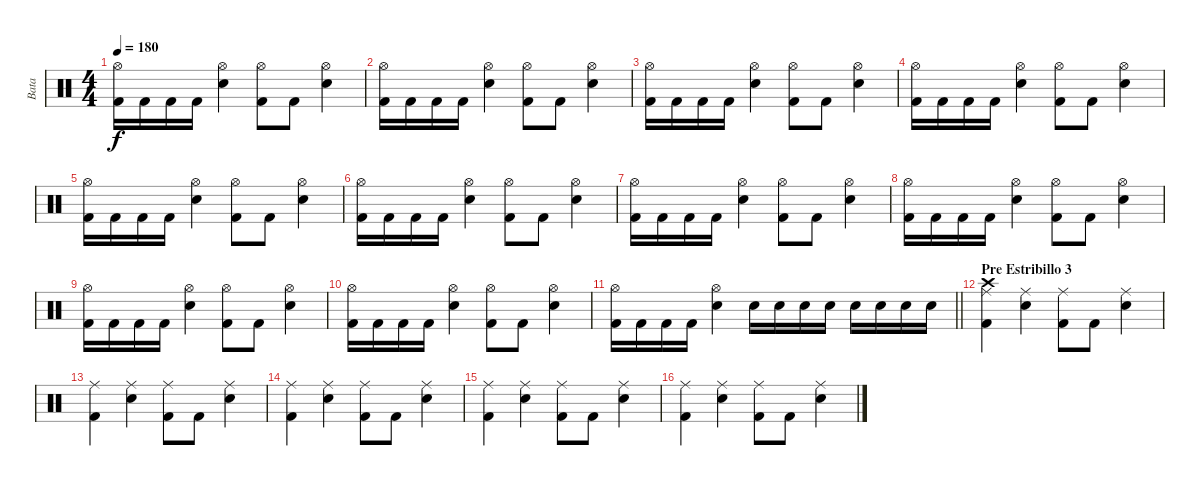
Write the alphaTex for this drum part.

\track ("Bata" "Bata") {instrument percussion}
\staff {score}
\articulation defaults
\ts (4 4)
\tempo 180
\clef neutral
\ks c
("Hi-Hat (open)" "Kick (hit) 2").16{dy f} "Kick (hit) 2".16 "Kick (hit) 2".16 "Kick (hit) 2".16 ("Hi-Hat (open)" "Snare (hit) 2").4 ("Hi-Hat (open)" "Kick (hit) 2").8 "Kick (hit) 2".8 ("Hi-Hat (open)" "Snare (hit) 2").4 |
("Hi-Hat (open)" "Kick (hit) 2").16 "Kick (hit) 2".16 "Kick (hit) 2".16 "Kick (hit) 2".16 ("Hi-Hat (open)" "Snare (hit) 2").4 ("Hi-Hat (open)" "Kick (hit) 2").8 "Kick (hit) 2".8 ("Hi-Hat (open)" "Snare (hit) 2").4 |
("Hi-Hat (open)" "Kick (hit) 2").16 "Kick (hit) 2".16 "Kick (hit) 2".16 "Kick (hit) 2".16 ("Hi-Hat (open)" "Snare (hit) 2").4 ("Hi-Hat (open)" "Kick (hit) 2").8 "Kick (hit) 2".8 ("Hi-Hat (open)" "Snare (hit) 2").4 |
("Hi-Hat (open)" "Kick (hit) 2").16 "Kick (hit) 2".16 "Kick (hit) 2".16 "Kick (hit) 2".16 ("Hi-Hat (open)" "Snare (hit) 2").4 ("Hi-Hat (open)" "Kick (hit) 2").8 "Kick (hit) 2".8 ("Hi-Hat (open)" "Snare (hit) 2").4 |
("Hi-Hat (open)" "Kick (hit) 2").16 "Kick (hit) 2".16 "Kick (hit) 2".16 "Kick (hit) 2".16 ("Hi-Hat (open)" "Snare (hit) 2").4 ("Hi-Hat (open)" "Kick (hit) 2").8 "Kick (hit) 2".8 ("Hi-Hat (open)" "Snare (hit) 2").4 |
("Hi-Hat (open)" "Kick (hit) 2").16 "Kick (hit) 2".16 "Kick (hit) 2".16 "Kick (hit) 2".16 ("Hi-Hat (open)" "Snare (hit) 2").4 ("Hi-Hat (open)" "Kick (hit) 2").8 "Kick (hit) 2".8 ("Hi-Hat (open)" "Snare (hit) 2").4 |
("Hi-Hat (open)" "Kick (hit) 2").16 "Kick (hit) 2".16 "Kick (hit) 2".16 "Kick (hit) 2".16 ("Hi-Hat (open)" "Snare (hit) 2").4 ("Hi-Hat (open)" "Kick (hit) 2").8 "Kick (hit) 2".8 ("Hi-Hat (open)" "Snare (hit) 2").4 |
("Hi-Hat (open)" "Kick (hit) 2").16 "Kick (hit) 2".16 "Kick (hit) 2".16 "Kick (hit) 2".16 ("Hi-Hat (open)" "Snare (hit) 2").4 ("Hi-Hat (open)" "Kick (hit) 2").8 "Kick (hit) 2".8 ("Hi-Hat (open)" "Snare (hit) 2").4 |
("Hi-Hat (open)" "Kick (hit) 2").16 "Kick (hit) 2".16 "Kick (hit) 2".16 "Kick (hit) 2".16 ("Hi-Hat (open)" "Snare (hit) 2").4 ("Hi-Hat (open)" "Kick (hit) 2").8 "Kick (hit) 2".8 ("Hi-Hat (open)" "Snare (hit) 2").4 |
("Hi-Hat (open)" "Kick (hit) 2").16 "Kick (hit) 2".16 "Kick (hit) 2".16 "Kick (hit) 2".16 ("Hi-Hat (open)" "Snare (hit) 2").4 ("Hi-Hat (open)" "Kick (hit) 2").8 "Kick (hit) 2".8 ("Hi-Hat (open)" "Snare (hit) 2").4 |
\barLineRight lightlight
("Hi-Hat (open)" "Kick (hit) 2").16 "Kick (hit) 2".16 "Kick (hit) 2".16 "Kick (hit) 2".16 ("Hi-Hat (open)" "Snare (hit) 2").4 "Snare (hit) 2".16 "Snare (hit) 2".16 "Snare (hit) 2".16 "Snare (hit) 2".16 "Snare (hit) 2".16 "Snare (hit) 2".16 "Snare (hit) 2".16 "Snare (hit) 2".16 |
\section ("" "Pre Estribillo 3")
("Ride (middle)" "Crash high (hit)" "Kick (hit) 2").4 ("Ride (middle)" "Snare (hit) 2").4 ("Ride (middle)" "Kick (hit) 2").8 "Kick (hit) 2".8 ("Ride (middle)" "Snare (hit) 2").4 |
("Ride (middle)" "Kick (hit) 2").4 ("Ride (middle)" "Snare (hit) 2").4 ("Ride (middle)" "Kick (hit) 2").8 "Kick (hit) 2".8 ("Ride (middle)" "Snare (hit) 2").4 |
("Ride (middle)" "Kick (hit) 2").4 ("Ride (middle)" "Snare (hit) 2").4 ("Ride (middle)" "Kick (hit) 2").8 "Kick (hit) 2".8 ("Ride (middle)" "Snare (hit) 2").4 |
("Ride (middle)" "Kick (hit) 2").4 ("Ride (middle)" "Snare (hit) 2").4 ("Ride (middle)" "Kick (hit) 2").8 "Kick (hit) 2".8 ("Ride (middle)" "Snare (hit) 2").4 |
("Ride (middle)" "Kick (hit) 2").4 ("Ride (middle)" "Snare (hit) 2").4 ("Ride (middle)" "Kick (hit) 2").8 "Kick (hit) 2".8 ("Ride (middle)" "Snare (hit) 2").4
